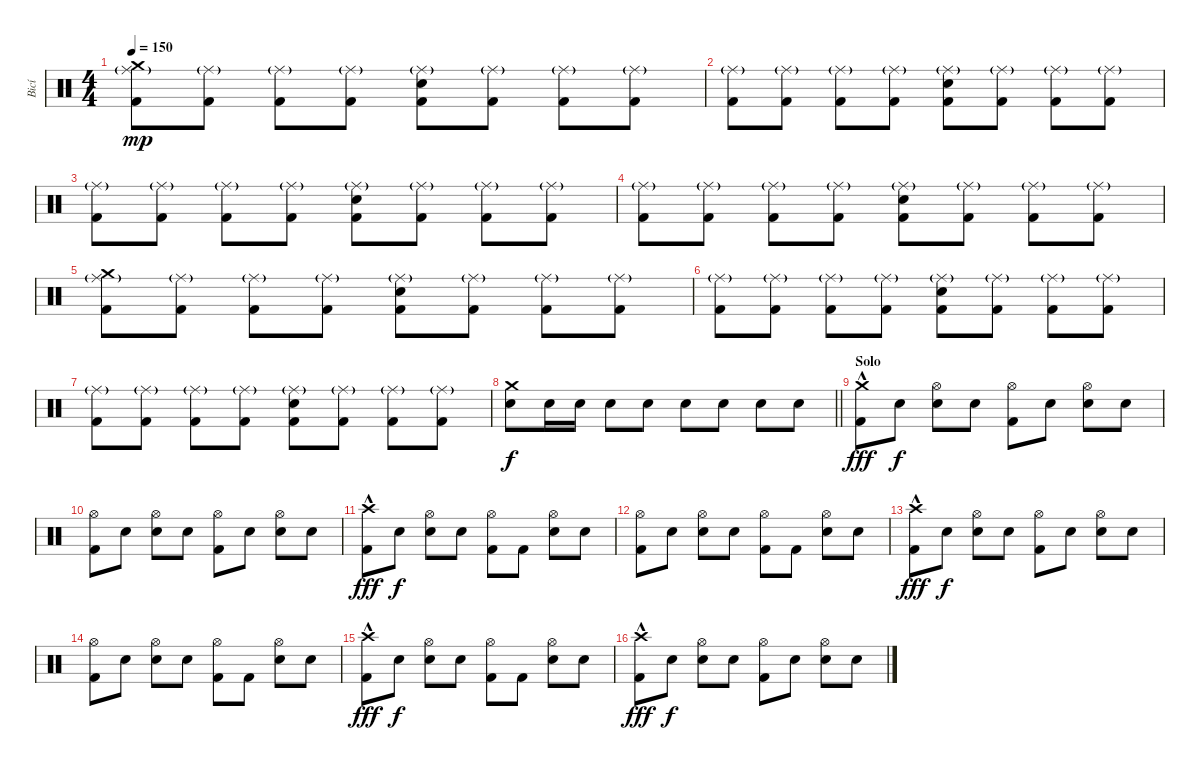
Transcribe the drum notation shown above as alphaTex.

\track ("Bicí" "Bicí") {instrument percussion}
\staff {score}
\articulation defaults
\ts (4 4)
\tempo 150
\clef neutral
\ks c
("Crash medium (hit)" "Ride (middle)"{g} "Kick (hit) 2").8{dy mp} ("Ride (middle)"{g} "Kick (hit) 2").8 ("Ride (middle)"{g} "Kick (hit) 2").8 ("Ride (middle)"{g} "Kick (hit) 2").8 ("Ride (middle)"{g} "Electric Snare (hit)" "Kick (hit) 2").8 ("Ride (middle)"{g} "Kick (hit) 2").8 ("Ride (middle)"{g} "Kick (hit) 2").8 ("Ride (middle)"{g} "Kick (hit) 2").8 |
("Ride (middle)"{g} "Kick (hit) 2").8 ("Ride (middle)"{g} "Kick (hit) 2").8 ("Ride (middle)"{g} "Kick (hit) 2").8 ("Ride (middle)"{g} "Kick (hit) 2").8 ("Ride (middle)"{g} "Electric Snare (hit)" "Kick (hit) 2").8 ("Ride (middle)"{g} "Kick (hit) 2").8 ("Ride (middle)"{g} "Kick (hit) 2").8 ("Ride (middle)"{g} "Kick (hit) 2").8 |
("Ride (middle)"{g} "Kick (hit) 2").8 ("Ride (middle)"{g} "Kick (hit) 2").8 ("Ride (middle)"{g} "Kick (hit) 2").8 ("Ride (middle)"{g} "Kick (hit) 2").8 ("Ride (middle)"{g} "Electric Snare (hit)" "Kick (hit) 2").8 ("Ride (middle)"{g} "Kick (hit) 2").8 ("Ride (middle)"{g} "Kick (hit) 2").8 ("Ride (middle)"{g} "Kick (hit) 2").8 |
("Ride (middle)"{g} "Kick (hit) 2").8 ("Ride (middle)"{g} "Kick (hit) 2").8 ("Ride (middle)"{g} "Kick (hit) 2").8 ("Ride (middle)"{g} "Kick (hit) 2").8 ("Ride (middle)"{g} "Electric Snare (hit)" "Kick (hit) 2").8 ("Ride (middle)"{g} "Kick (hit) 2").8 ("Ride (middle)"{g} "Kick (hit) 2").8 ("Ride (middle)"{g} "Kick (hit) 2").8 |
("Crash medium (hit)" "Ride (middle)"{g} "Kick (hit) 2").8 ("Ride (middle)"{g} "Kick (hit) 2").8 ("Ride (middle)"{g} "Kick (hit) 2").8 ("Ride (middle)"{g} "Kick (hit) 2").8 ("Ride (middle)"{g} "Electric Snare (hit)" "Kick (hit) 2").8 ("Ride (middle)"{g} "Kick (hit) 2").8 ("Ride (middle)"{g} "Kick (hit) 2").8 ("Ride (middle)"{g} "Kick (hit) 2").8 |
("Ride (middle)"{g} "Kick (hit) 2").8 ("Ride (middle)"{g} "Kick (hit) 2").8 ("Ride (middle)"{g} "Kick (hit) 2").8 ("Ride (middle)"{g} "Kick (hit) 2").8 ("Ride (middle)"{g} "Electric Snare (hit)" "Kick (hit) 2").8 ("Ride (middle)"{g} "Kick (hit) 2").8 ("Ride (middle)"{g} "Kick (hit) 2").8 ("Ride (middle)"{g} "Kick (hit) 2").8 |
("Ride (middle)"{g} "Kick (hit) 2").8 ("Ride (middle)"{g} "Kick (hit) 2").8 ("Ride (middle)"{g} "Kick (hit) 2").8 ("Ride (middle)"{g} "Kick (hit) 2").8 ("Ride (middle)"{g} "Electric Snare (hit)" "Kick (hit) 2").8 ("Ride (middle)"{g} "Kick (hit) 2").8 ("Ride (middle)"{g} "Kick (hit) 2").8 ("Ride (middle)"{g} "Kick (hit) 2").8 |
\barLineRight lightlight
("Crash medium (hit)" "Electric Snare (hit)").8{dy f} "Electric Snare (hit)".16 "Electric Snare (hit)".16 "Electric Snare (hit)".8 "Electric Snare (hit)".8 "Electric Snare (hit)".8 "Electric Snare (hit)".8 "Electric Snare (hit)".8 "Electric Snare (hit)".8 |
\section ("" "Solo")
("Crash medium (hit)"{hac} "Kick (hit) 2").8{dy fff} "Snare (hit)".8{dy f} ("Hi-Hat (open)" "Electric Snare (hit)").8 "Snare (hit)".8 ("Hi-Hat (open)" "Kick (hit) 2").8 "Snare (hit)".8 ("Hi-Hat (open)" "Electric Snare (hit)").8 "Snare (hit)".8 |
("Hi-Hat (open)" "Kick (hit) 2").8 "Snare (hit)".8 ("Hi-Hat (open)" "Electric Snare (hit)").8 "Snare (hit)".8 ("Hi-Hat (open)" "Kick (hit) 2").8 "Snare (hit)".8 ("Hi-Hat (open)" "Electric Snare (hit)").8 "Snare (hit)".8 |
("Crash high (hit)"{hac} "Kick (hit) 2").8{dy fff} "Snare (hit)".8{dy f} ("Hi-Hat (open)" "Electric Snare (hit)").8 "Snare (hit)".8 ("Hi-Hat (open)" "Kick (hit) 2").8 "Kick (hit) 2".8 ("Hi-Hat (open)" "Electric Snare (hit)").8 "Snare (hit)".8 |
("Hi-Hat (open)" "Kick (hit) 2").8 "Snare (hit)".8 ("Hi-Hat (open)" "Electric Snare (hit)").8 "Snare (hit)".8 ("Hi-Hat (open)" "Kick (hit) 2").8 "Kick (hit) 2".8 ("Hi-Hat (open)" "Electric Snare (hit)").8 "Snare (hit)".8 |
("Crash high (hit)"{hac} "Kick (hit) 2").8{dy fff} "Snare (hit)".8{dy f} ("Hi-Hat (open)" "Electric Snare (hit)").8 "Snare (hit)".8 ("Hi-Hat (open)" "Kick (hit) 2").8 "Snare (hit)".8 ("Hi-Hat (open)" "Electric Snare (hit)").8 "Snare (hit)".8 |
("Hi-Hat (open)" "Kick (hit) 2").8 "Snare (hit)".8 ("Hi-Hat (open)" "Electric Snare (hit)").8 "Snare (hit)".8 ("Hi-Hat (open)" "Kick (hit) 2").8 "Kick (hit) 2".8 ("Hi-Hat (open)" "Electric Snare (hit)").8 "Snare (hit)".8 |
("Crash high (hit)"{hac} "Kick (hit) 2").8{dy fff} "Snare (hit)".8{dy f} ("Hi-Hat (open)" "Electric Snare (hit)").8 "Snare (hit)".8 ("Hi-Hat (open)" "Kick (hit) 2").8 "Kick (hit) 2".8 ("Hi-Hat (open)" "Electric Snare (hit)").8 "Snare (hit)".8 |
("Crash high (hit)"{hac} "Kick (hit) 2").8{dy fff} "Snare (hit)".8{dy f} ("Hi-Hat (open)" "Electric Snare (hit)").8 "Snare (hit)".8 ("Hi-Hat (open)" "Kick (hit) 2").8 "Snare (hit)".8 ("Hi-Hat (open)" "Electric Snare (hit)").8 "Snare (hit)".8
